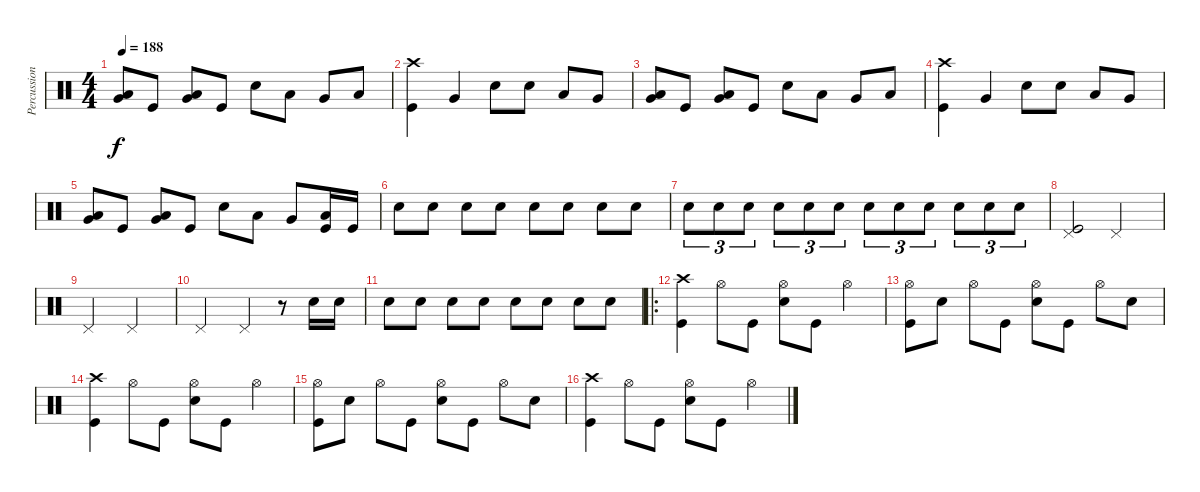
\track ("Percussion" "Percussion") {instrument percussion}
\staff {score}
\articulation defaults
\ts (4 4)
\tempo 188
\clef neutral
\ks c
("Low Floor Tom (hit)" "Very Low Tom (hit)").8{dy f} "Kick (hit)".8 ("Low Floor Tom (hit)" "Very Low Tom (hit)").8 "Kick (hit)".8 "Snare (hit) 2".8 "Low Floor Tom (hit)".8 "Very Low Tom (hit)".8 "Low Floor Tom (hit)".8 |
("Kick (hit)" "Crash high (hit)").4 "Very Low Tom (hit)".4 "Snare (hit) 2".8 "Snare (hit) 2".8 "Low Tom (hit)".8 "Very Low Tom (hit)".8 |
("Low Floor Tom (hit)" "Very Low Tom (hit)").8 "Kick (hit)".8 ("Low Floor Tom (hit)" "Very Low Tom (hit)").8 "Kick (hit)".8 "Snare (hit) 2".8 "Low Floor Tom (hit)".8 "Very Low Tom (hit)".8 "Low Floor Tom (hit)".8 |
("Kick (hit)" "Crash high (hit)").4 "Very Low Tom (hit)".4 "Snare (hit) 2".8 "Snare (hit) 2".8 "Low Tom (hit)".8 "Very Low Tom (hit)".8 |
("Low Floor Tom (hit)" "Very Low Tom (hit)").8 "Kick (hit)".8 ("Low Floor Tom (hit)" "Very Low Tom (hit)").8 "Kick (hit)".8 "Snare (hit) 2".8 "Low Floor Tom (hit)".8 "Very Low Tom (hit)".8 ("Low Floor Tom (hit)" "Kick (hit)").16 "Kick (hit)".16 |
"Snare (hit) 2".8 "Snare (hit) 2".8 "Snare (hit) 2".8 "Snare (hit) 2".8 "Snare (hit) 2".8 "Snare (hit) 2".8 "Snare (hit) 2".8 "Snare (hit) 2".8 |
"Snare (hit) 2".8{tu (3 2)} "Snare (hit) 2".8{tu (3 2)} "Snare (hit) 2".8{tu (3 2)} "Snare (hit) 2".8{tu (3 2)} "Snare (hit) 2".8{tu (3 2)} "Snare (hit) 2".8{tu (3 2)} "Snare (hit) 2".8{tu (3 2)} "Snare (hit) 2".8{tu (3 2)} "Snare (hit) 2".8{tu (3 2)} "Snare (hit) 2".8{tu (3 2)} "Snare (hit) 2".8{tu (3 2)} "Snare (hit) 2".8{tu (3 2)} |
("Pedal Hi-Hat (hit)" "Kick (hit)").2 "Pedal Hi-Hat (hit)".2 |
"Pedal Hi-Hat (hit)".2 "Pedal Hi-Hat (hit)".2 |
"Pedal Hi-Hat (hit)".2 "Pedal Hi-Hat (hit)".4 r.8 "Snare (hit) 2".16 "Snare (hit) 2".16 |
"Snare (hit) 2".8 "Snare (hit) 2".8 "Snare (hit) 2".8 "Snare (hit) 2".8 "Snare (hit) 2".8 "Snare (hit) 2".8 "Snare (hit) 2".8 "Snare (hit) 2".8 |
\ro
("Kick (hit)" "Crash high (hit)").4 "Hi-Hat (open)".8 "Kick (hit)".8 ("Snare (hit) 2" "Hi-Hat (open)").8 "Kick (hit)".8 "Hi-Hat (open)".4 |
("Kick (hit)" "Hi-Hat (open)").8 "Snare (hit) 2".8 "Hi-Hat (open)".8 "Kick (hit)".8 ("Snare (hit) 2" "Hi-Hat (open)").8 "Kick (hit)".8 "Hi-Hat (open)".8 "Snare (hit) 2".8 |
("Kick (hit)" "Crash high (hit)").4 "Hi-Hat (open)".8 "Kick (hit)".8 ("Snare (hit) 2" "Hi-Hat (open)").8 "Kick (hit)".8 "Hi-Hat (open)".4 |
("Kick (hit)" "Hi-Hat (open)").8 "Snare (hit) 2".8 "Hi-Hat (open)".8 "Kick (hit)".8 ("Snare (hit) 2" "Hi-Hat (open)").8 "Kick (hit)".8 "Hi-Hat (open)".8 "Snare (hit) 2".8 |
("Kick (hit)" "Crash high (hit)").4 "Hi-Hat (open)".8 "Kick (hit)".8 ("Snare (hit) 2" "Hi-Hat (open)").8 "Kick (hit)".8 "Hi-Hat (open)".4
